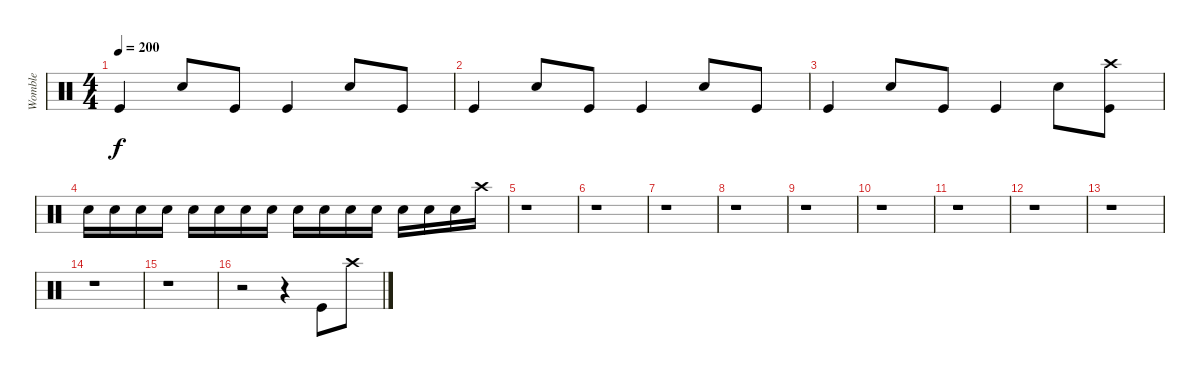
\track ("Womble" "Womble") {instrument percussion}
\staff {score}
\articulation defaults
\ts (4 4)
\tempo 200
\clef neutral
\ks c "Kick (hit)".4{dy f} "Snare (hit) 2".8 "Kick (hit)".8 "Kick (hit)".4 "Electric Snare (hit)".8 "Kick (hit)".8
|
"Kick (hit)".4 "Snare (hit) 2".8 "Kick (hit)".8 "Kick (hit)".4 "Electric Snare (hit)".8 "Kick (hit)".8 |
"Kick (hit)".4 "Snare (hit) 2".8 "Kick (hit)".8 "Kick (hit)".4 "Electric Snare (hit)".8 ("Crash high (hit)" "Kick (hit)").8 |
"Snare (hit) 2".16 "Snare (hit) 2".16 "Snare (hit) 2".16 "Snare (hit) 2".16 "Snare (hit) 2".16 "Snare (hit) 2".16 "Snare (hit) 2".16 "Snare (hit) 2".16 "Snare (hit) 2".16 "Snare (hit) 2".16 "Snare (hit) 2".16 "Snare (hit) 2".16 "Snare (hit) 2".16 "Snare (hit) 2".16 "Snare (hit) 2".16 "Crash high (hit)".16 |
r.1 |
r.1 |
r.1 |
r.1 |
r.1 |
r.1 |
r.1 |
r.1 |
r.1 |
r.1 |
r.1 |
r.2 r.4 "Kick (hit)".8 "Crash high (hit)".8
